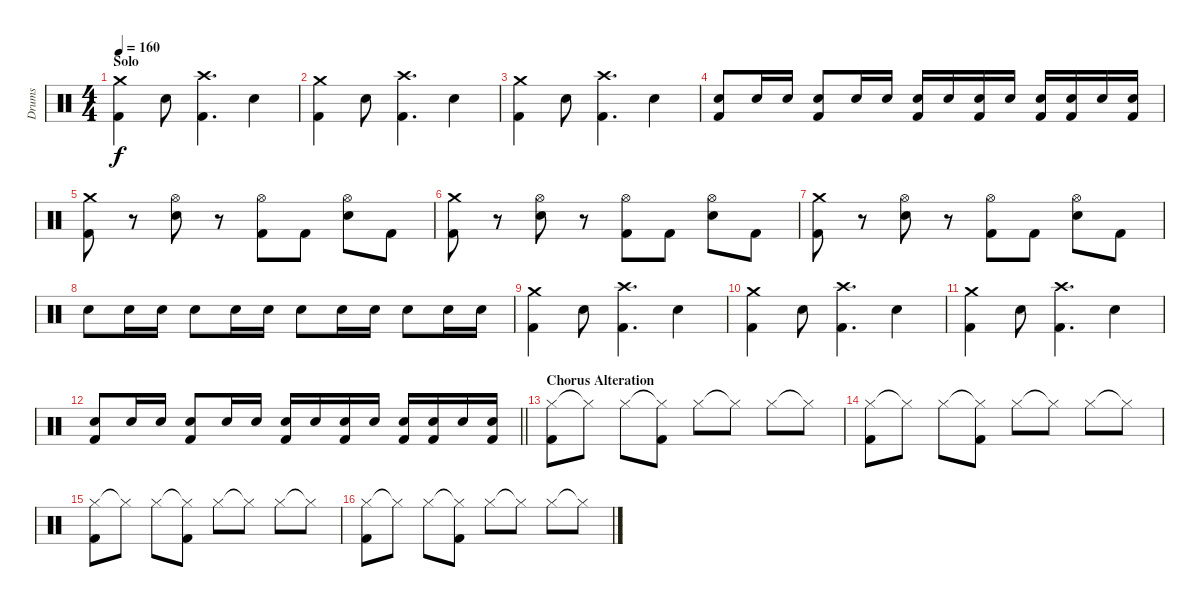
\track ("Drums" "Drums") {instrument percussion}
\staff {score}
\articulation defaults
\ts (4 4)
\section ("" "Solo")
\tempo 160
\clef neutral
\ks c
("Crash medium (hit)" "Kick (hit) 2").4{dy f} "Snare (hit) 2".8 ("Crash high (hit)" "Kick (hit) 2").4{d} "Snare (hit) 2".4 |
("Crash medium (hit)" "Kick (hit) 2").4 "Snare (hit) 2".8 ("Crash high (hit)" "Kick (hit) 2").4{d} "Snare (hit) 2".4 |
("Crash medium (hit)" "Kick (hit) 2").4 "Snare (hit) 2".8 ("Crash high (hit)" "Kick (hit) 2").4{d} "Snare (hit) 2".4 |
("Snare (hit) 2" "Kick (hit) 2").8 "Snare (hit) 2".16 "Snare (hit) 2".16 ("Snare (hit) 2" "Kick (hit) 2").8 "Snare (hit) 2".16 "Snare (hit) 2".16 ("Snare (hit) 2" "Kick (hit) 2").16 "Snare (hit) 2".16 ("Snare (hit) 2" "Kick (hit) 2").16 "Snare (hit) 2".16 ("Snare (hit) 2" "Kick (hit) 2").16 ("Snare (hit) 2" "Kick (hit) 2").16 "Snare (hit) 2".16 ("Snare (hit) 2" "Kick (hit) 2").16 |
("Crash medium (hit)" "Kick (hit) 2").8 r.8 ("Hi-Hat (open)" "Snare (hit) 2").8 r.8 ("Hi-Hat (open)" "Kick (hit) 2").8 "Kick (hit) 2".8 ("Hi-Hat (open)" "Snare (hit) 2").8 "Kick (hit) 2".8 |
("Crash medium (hit)" "Kick (hit) 2").8 r.8 ("Hi-Hat (open)" "Snare (hit) 2").8 r.8 ("Hi-Hat (open)" "Kick (hit) 2").8 "Kick (hit) 2".8 ("Hi-Hat (open)" "Snare (hit) 2").8 "Kick (hit) 2".8 |
("Crash medium (hit)" "Kick (hit) 2").8 r.8 ("Hi-Hat (open)" "Snare (hit) 2").8 r.8 ("Hi-Hat (open)" "Kick (hit) 2").8 "Kick (hit) 2".8 ("Hi-Hat (open)" "Snare (hit) 2").8 "Kick (hit) 2".8 |
"Snare (hit) 2".8 "Snare (hit) 2".16 "Snare (hit) 2".16 "Snare (hit) 2".8 "Snare (hit) 2".16 "Snare (hit) 2".16 "Snare (hit) 2".8 "Snare (hit) 2".16 "Snare (hit) 2".16 "Snare (hit) 2".8 "Snare (hit) 2".16 "Snare (hit) 2".16 |
("Crash medium (hit)" "Kick (hit) 2").4 "Snare (hit) 2".8 ("Crash high (hit)" "Kick (hit) 2").4{d} "Snare (hit) 2".4 |
("Crash medium (hit)" "Kick (hit) 2").4 "Snare (hit) 2".8 ("Crash high (hit)" "Kick (hit) 2").4{d} "Snare (hit) 2".4 |
("Crash medium (hit)" "Kick (hit) 2").4 "Snare (hit) 2".8 ("Crash high (hit)" "Kick (hit) 2").4{d} "Snare (hit) 2".4 |
\barLineRight lightlight
("Snare (hit) 2" "Kick (hit) 2").8 "Snare (hit) 2".16 "Snare (hit) 2".16 ("Snare (hit) 2" "Kick (hit) 2").8 "Snare (hit) 2".16 "Snare (hit) 2".16 ("Snare (hit) 2" "Kick (hit) 2").16 "Snare (hit) 2".16 ("Snare (hit) 2" "Kick (hit) 2").16 "Snare (hit) 2".16 ("Snare (hit) 2" "Kick (hit) 2").16 ("Snare (hit) 2" "Kick (hit) 2").16 "Snare (hit) 2".16 ("Snare (hit) 2" "Kick (hit) 2").16 |
\section ("" "Chorus Alteration")
("Hi-Hat (closed)" "Kick (hit) 2").8 "Hi-Hat (closed)"{t}.8 "Hi-Hat (closed)".8 ("Hi-Hat (closed)"{t} "Kick (hit) 2").8 "Hi-Hat (closed)".8 "Hi-Hat (closed)"{t}.8 "Hi-Hat (closed)".8 "Hi-Hat (closed)"{t}.8 |
("Hi-Hat (closed)" "Kick (hit) 2").8 "Hi-Hat (closed)"{t}.8 "Hi-Hat (closed)".8 ("Hi-Hat (closed)"{t} "Kick (hit) 2").8 "Hi-Hat (closed)".8 "Hi-Hat (closed)"{t}.8 "Hi-Hat (closed)".8 "Hi-Hat (closed)"{t}.8 |
("Hi-Hat (closed)" "Kick (hit) 2").8 "Hi-Hat (closed)"{t}.8 "Hi-Hat (closed)".8 ("Hi-Hat (closed)"{t} "Kick (hit) 2").8 "Hi-Hat (closed)".8 "Hi-Hat (closed)"{t}.8 "Hi-Hat (closed)".8 "Hi-Hat (closed)"{t}.8 |
("Hi-Hat (closed)" "Kick (hit) 2").8 "Hi-Hat (closed)"{t}.8 "Hi-Hat (closed)".8 ("Hi-Hat (closed)"{t} "Kick (hit) 2").8 "Hi-Hat (closed)".8 "Hi-Hat (closed)"{t}.8 "Hi-Hat (closed)".8 "Hi-Hat (closed)"{t}.8
